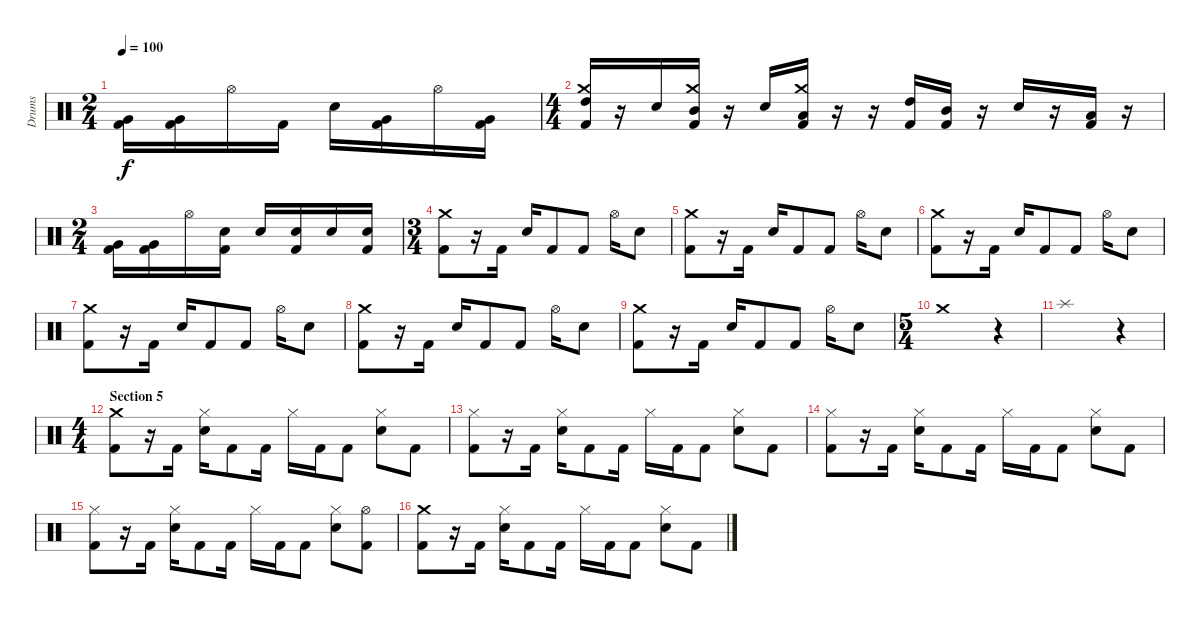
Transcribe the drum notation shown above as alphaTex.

\track ("Drums" "Drums") {instrument percussion}
\staff {score}
\articulation defaults
\ts (2 4)
\tempo 100
\clef neutral
\ks c
("Very Low Tom (hit)" "Kick (hit) 2").16{dy f} ("Very Low Tom (hit)" "Kick (hit) 2").16 "Hi-Hat (open)".16 "Kick (hit) 2".16 "Snare (hit) 2".16 ("Very Low Tom (hit)" "Kick (hit) 2").16 "Hi-Hat (open)".16 ("Very Low Tom (hit)" "Kick (hit) 2").16 |
\ts (4 4)
("Crash medium (hit)" "High Tom (hit)" "Kick (hit) 2").16 r.16 "Snare (hit) 2".16 ("Crash medium (hit)" "Mid Tom (hit)" "Kick (hit) 2").16 r.16 "Snare (hit) 2".16 ("Crash medium (hit)" "Low Tom (hit)" "Kick (hit) 2").16 r.16 r.16 ("High Tom (hit)" "Kick (hit) 2").16 ("Mid Tom (hit)" "Kick (hit) 2").16 r.16 "Snare (hit) 2".16 r.16 ("Low Tom (hit)" "Kick (hit) 2").16 r.16 |
\ts (2 4)
("Very Low Tom (hit)" "Kick (hit) 2").16 ("Very Low Tom (hit)" "Kick (hit) 2").16 "Hi-Hat (open)".16 ("Snare (hit) 2" "Kick (hit) 2").16 "Snare (hit) 2".16 ("Snare (hit) 2" "Kick (hit) 2").16 "Snare (hit) 2".16 ("Snare (hit) 2" "Kick (hit) 2").16 |
\ts (3 4)
("Crash medium (hit)" "Kick (hit) 2").8 r.16 "Kick (hit) 2".16 "Snare (hit) 2".16 "Kick (hit) 2".8 "Kick (hit) 2".8 "Hi-Hat (open)".16 "Snare (hit) 2".8 |
("Crash medium (hit)" "Kick (hit) 2").8 r.16 "Kick (hit) 2".16 "Snare (hit) 2".16 "Kick (hit) 2".8 "Kick (hit) 2".8 "Hi-Hat (open)".16 "Snare (hit) 2".8 |
("Crash medium (hit)" "Kick (hit) 2").8 r.16 "Kick (hit) 2".16 "Snare (hit) 2".16 "Kick (hit) 2".8 "Kick (hit) 2".8 "Hi-Hat (open)".16 "Snare (hit) 2".8 |
("Crash medium (hit)" "Kick (hit) 2").8 r.16 "Kick (hit) 2".16 "Snare (hit) 2".16 "Kick (hit) 2".8 "Kick (hit) 2".8 "Hi-Hat (open)".16 "Snare (hit) 2".8 |
("Crash medium (hit)" "Kick (hit) 2").8 r.16 "Kick (hit) 2".16 "Snare (hit) 2".16 "Kick (hit) 2".8 "Kick (hit) 2".8 "Hi-Hat (open)".16 "Snare (hit) 2".8 |
("Crash medium (hit)" "Kick (hit) 2").8 r.16 "Kick (hit) 2".16 "Snare (hit) 2".16 "Kick (hit) 2".8 "Kick (hit) 2".8 "Hi-Hat (open)".16 "Snare (hit) 2".8 |
\ts (5 4)
"Crash medium (hit)".1 r.4 |
"Splash (hit)".1 r.4 |
\ts (4 4)
\section ("" "Section 5")
("Crash medium (hit)" "Kick (hit) 2").8 r.16 "Kick (hit) 2".16 ("Hi-Hat (closed)" "Snare (hit) 2").16 "Kick (hit) 2".8 "Kick (hit) 2".16 "Hi-Hat (closed)".16 "Kick (hit) 2".16 "Kick (hit) 2".8 ("Hi-Hat (closed)" "Snare (hit) 2").8 "Kick (hit) 2".8 |
("Hi-Hat (closed)" "Kick (hit) 2").8 r.16 "Kick (hit) 2".16 ("Hi-Hat (closed)" "Snare (hit) 2").16 "Kick (hit) 2".8 "Kick (hit) 2".16 "Hi-Hat (closed)".16 "Kick (hit) 2".16 "Kick (hit) 2".8 ("Hi-Hat (closed)" "Snare (hit) 2").8 "Kick (hit) 2".8 |
("Hi-Hat (closed)" "Kick (hit) 2").8 r.16 "Kick (hit) 2".16 ("Hi-Hat (closed)" "Snare (hit) 2").16 "Kick (hit) 2".8 "Kick (hit) 2".16 "Hi-Hat (closed)".16 "Kick (hit) 2".16 "Kick (hit) 2".8 ("Hi-Hat (closed)" "Snare (hit) 2").8 "Kick (hit) 2".8 |
("Hi-Hat (closed)" "Kick (hit) 2").8 r.16 "Kick (hit) 2".16 ("Hi-Hat (closed)" "Snare (hit) 2").16 "Kick (hit) 2".8 "Kick (hit) 2".16 "Hi-Hat (closed)".16 "Kick (hit) 2".16 "Kick (hit) 2".8 ("Hi-Hat (closed)" "Snare (hit) 2").8 ("Hi-Hat (open)" "Kick (hit) 2").8 |
("Crash medium (hit)" "Kick (hit) 2").8 r.16 "Kick (hit) 2".16 ("Hi-Hat (closed)" "Snare (hit) 2").16 "Kick (hit) 2".8 "Kick (hit) 2".16 "Hi-Hat (closed)".16 "Kick (hit) 2".16 "Kick (hit) 2".8 ("Hi-Hat (closed)" "Snare (hit) 2").8 "Kick (hit) 2".8
